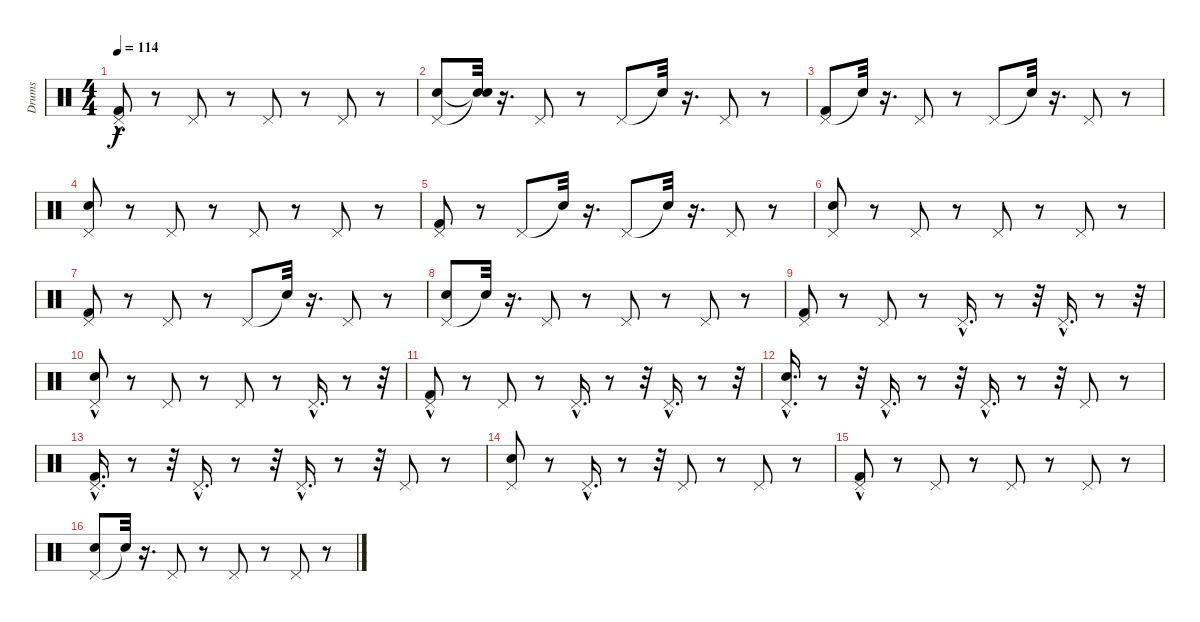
\track ("Drums" "Drums") {instrument percussion}
\staff {score}
\articulation defaults
\ts (4 4)
\tempo 114
\clef neutral
\ks c
("Kick (hit) 2" "Pedal Hi-Hat (hit)"{hac}).8{dy f} r.8 "Pedal Hi-Hat (hit)".8 r.8 "Pedal Hi-Hat (hit)".8 r.8 "Pedal Hi-Hat (hit)".8 r.8 |
("Pedal Hi-Hat (hit)" "Snare (hit) 2").8 ("Snare (hit)"{t} "Snare (hit)"{t}).32 r.16{d} "Pedal Hi-Hat (hit)".8 r.8 "Pedal Hi-Hat (hit)".8 "Snare (hit)"{t}.32 r.16{d} "Pedal Hi-Hat (hit)".8 r.8 |
("Pedal Hi-Hat (hit)" "Kick (hit) 2").8 "Snare (hit)"{t}.32 r.16{d} "Pedal Hi-Hat (hit)".8 r.8 "Pedal Hi-Hat (hit)".8 "Snare (hit)"{t}.32 r.16{d} "Pedal Hi-Hat (hit)".8 r.8 |
("Pedal Hi-Hat (hit)" "Snare (hit) 2").8 r.8 "Pedal Hi-Hat (hit)".8 r.8 "Pedal Hi-Hat (hit)".8 r.8 "Pedal Hi-Hat (hit)".8 r.8 |
("Pedal Hi-Hat (hit)" "Kick (hit) 2").8 r.8 "Pedal Hi-Hat (hit)".8 "Snare (hit)"{t}.32 r.16{d} "Pedal Hi-Hat (hit)".8 "Snare (hit)"{t}.32 r.16{d} "Pedal Hi-Hat (hit)".8 r.8 |
("Pedal Hi-Hat (hit)" "Snare (hit) 2").8 r.8 "Pedal Hi-Hat (hit)".8 r.8 "Pedal Hi-Hat (hit)".8 r.8 "Pedal Hi-Hat (hit)".8 r.8 |
("Pedal Hi-Hat (hit)" "Kick (hit) 2").8 r.8 "Pedal Hi-Hat (hit)".8 r.8 "Pedal Hi-Hat (hit)".8 "Snare (hit)"{t}.32 r.16{d} "Pedal Hi-Hat (hit)".8 r.8 |
("Pedal Hi-Hat (hit)" "Snare (hit) 2").8 "Snare (hit)"{t}.32 r.16{d} "Pedal Hi-Hat (hit)".8 r.8 "Pedal Hi-Hat (hit)".8 r.8 "Pedal Hi-Hat (hit)".8 r.8 |
("Pedal Hi-Hat (hit)" "Kick (hit) 2").8 r.8 "Pedal Hi-Hat (hit)".8 r.8 "Pedal Hi-Hat (hit)"{hac}.16{d} r.8 r.32 "Pedal Hi-Hat (hit)"{hac}.16{d} r.8 r.32 |
("Pedal Hi-Hat (hit)"{hac} "Snare (hit) 2").8 r.8 "Pedal Hi-Hat (hit)".8 r.8 "Pedal Hi-Hat (hit)".8 r.8 "Pedal Hi-Hat (hit)"{hac}.16{d} r.8 r.32 |
("Pedal Hi-Hat (hit)"{hac} "Kick (hit) 2").8 r.8 "Pedal Hi-Hat (hit)".8 r.8 "Pedal Hi-Hat (hit)"{hac}.16{d} r.8 r.32 "Pedal Hi-Hat (hit)"{hac}.16{d} r.8 r.32 |
("Snare (hit) 2"{hac} "Pedal Hi-Hat (hit)"{hac}).16{d} r.8 r.32 "Pedal Hi-Hat (hit)"{hac}.16{d} r.8 r.32 "Pedal Hi-Hat (hit)"{hac}.16{d} r.8 r.32 "Pedal Hi-Hat (hit)".8 r.8 |
("Pedal Hi-Hat (hit)"{hac} "Kick (hit) 2"{hac}).16{d} r.8 r.32 "Pedal Hi-Hat (hit)"{hac}.16{d} r.8 r.32 "Pedal Hi-Hat (hit)"{hac}.16{d} r.8 r.32 "Pedal Hi-Hat (hit)".8 r.8 |
("Pedal Hi-Hat (hit)" "Snare (hit) 2").8 r.8 "Pedal Hi-Hat (hit)"{hac}.16{d} r.8 r.32 "Pedal Hi-Hat (hit)".8 r.8 "Pedal Hi-Hat (hit)".8 r.8 |
("Kick (hit) 2" "Pedal Hi-Hat (hit)"{hac}).8 r.8 "Pedal Hi-Hat (hit)".8 r.8 "Pedal Hi-Hat (hit)".8 r.8 "Pedal Hi-Hat (hit)".8 r.8 |
("Pedal Hi-Hat (hit)" "Snare (hit) 2").8 "Snare (hit)"{t}.32 r.16{d} "Pedal Hi-Hat (hit)".8 r.8 "Pedal Hi-Hat (hit)".8 r.8 "Pedal Hi-Hat (hit)".8 r.8
